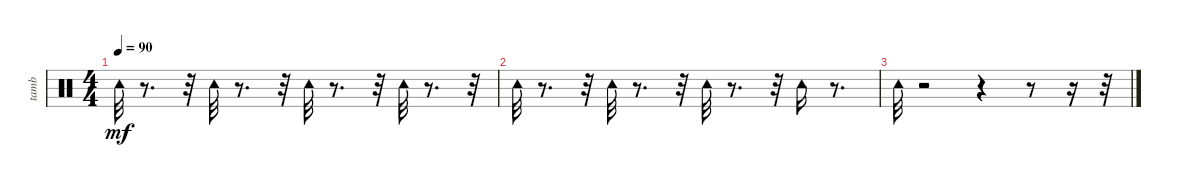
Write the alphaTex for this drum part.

\track ("tamb" "tamb") {instrument percussion}
\staff {score}
\articulation defaults
\ts (4 4)
\tempo 90
\clef neutral
\ks c "Tambourine (hit)".32{dy mf}
r.8{d} r.32 "Tambourine (hit)".32 r.8{d} r.32 "Tambourine (hit)".32 r.8{d} r.32 "Tambourine (hit)".32 r.8{d} r.32 |
"Tambourine (hit)".32 r.8{d} r.32 "Tambourine (hit)".32 r.8{d} r.32 "Tambourine (hit)".32 r.8{d} r.32 "Tambourine (hit)".16 r.8{d} |
"Tambourine (hit)".32 r.2 r.4 r.8 r.16 r.32
